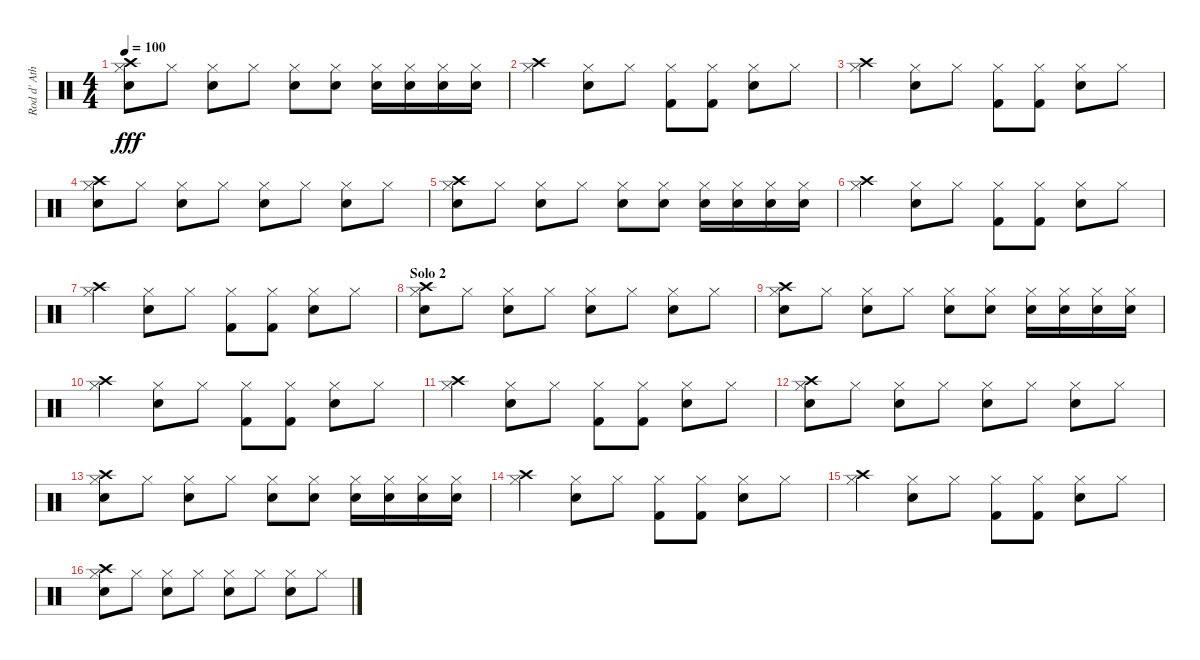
\track ("Rod d' Ath" "Rod d' Ath") {instrument percussion}
\staff {score}
\articulation defaults
\ts (4 4)
\tempo 100
\clef neutral
\ks c
("Snare (hit) 2" "Hi-Hat (closed)" "Crash high (hit)").8{dy fff} "Hi-Hat (closed)".8 ("Snare (hit) 2" "Hi-Hat (closed)").8 "Hi-Hat (closed)".8 ("Snare (hit) 2" "Hi-Hat (closed)").8 ("Snare (hit) 2" "Hi-Hat (closed)").8 ("Snare (hit) 2" "Hi-Hat (closed)").16 ("Snare (hit) 2" "Hi-Hat (closed)").16 ("Snare (hit) 2" "Hi-Hat (closed)").16 ("Snare (hit) 2" "Hi-Hat (closed)").16 |
("Crash high (hit)" "Hi-Hat (closed)").4 ("Snare (hit) 2" "Hi-Hat (closed)").8 "Hi-Hat (closed)".8 ("Kick (hit) 2" "Hi-Hat (closed)").8 ("Kick (hit) 2" "Hi-Hat (closed)").8 ("Snare (hit) 2" "Hi-Hat (closed)").8 "Hi-Hat (closed)".8 |
("Crash high (hit)" "Hi-Hat (closed)").4 ("Snare (hit) 2" "Hi-Hat (closed)").8 "Hi-Hat (closed)".8 ("Kick (hit) 2" "Hi-Hat (closed)").8 ("Kick (hit) 2" "Hi-Hat (closed)").8 ("Snare (hit) 2" "Hi-Hat (closed)").8 "Hi-Hat (closed)".8 |
("Snare (hit) 2" "Hi-Hat (closed)" "Crash high (hit)").8{volume 16} "Hi-Hat (closed)".8 ("Snare (hit) 2" "Hi-Hat (closed)").8 "Hi-Hat (closed)".8 ("Snare (hit) 2" "Hi-Hat (closed)").8 "Hi-Hat (closed)".8 ("Snare (hit) 2" "Hi-Hat (closed)").8 "Hi-Hat (closed)".8 |
("Snare (hit) 2" "Hi-Hat (closed)" "Crash high (hit)").8 "Hi-Hat (closed)".8 ("Snare (hit) 2" "Hi-Hat (closed)").8 "Hi-Hat (closed)".8 ("Snare (hit) 2" "Hi-Hat (closed)").8 ("Snare (hit) 2" "Hi-Hat (closed)").8 ("Snare (hit) 2" "Hi-Hat (closed)").16 ("Snare (hit) 2" "Hi-Hat (closed)").16 ("Snare (hit) 2" "Hi-Hat (closed)").16 ("Snare (hit) 2" "Hi-Hat (closed)").16 |
("Crash high (hit)" "Hi-Hat (closed)").4 ("Snare (hit) 2" "Hi-Hat (closed)").8 "Hi-Hat (closed)".8 ("Kick (hit) 2" "Hi-Hat (closed)").8 ("Kick (hit) 2" "Hi-Hat (closed)").8 ("Snare (hit) 2" "Hi-Hat (closed)").8 "Hi-Hat (closed)".8 |
("Crash high (hit)" "Hi-Hat (closed)").4 ("Snare (hit) 2" "Hi-Hat (closed)").8 "Hi-Hat (closed)".8 ("Kick (hit) 2" "Hi-Hat (closed)").8 ("Kick (hit) 2" "Hi-Hat (closed)").8 ("Snare (hit) 2" "Hi-Hat (closed)").8 "Hi-Hat (closed)".8 |
\section ("" "Solo 2")
("Snare (hit) 2" "Hi-Hat (closed)" "Crash high (hit)").8{volume 16} "Hi-Hat (closed)".8 ("Snare (hit) 2" "Hi-Hat (closed)").8 "Hi-Hat (closed)".8 ("Snare (hit) 2" "Hi-Hat (closed)").8 "Hi-Hat (closed)".8 ("Snare (hit) 2" "Hi-Hat (closed)").8 "Hi-Hat (closed)".8 |
("Snare (hit) 2" "Hi-Hat (closed)" "Crash high (hit)").8 "Hi-Hat (closed)".8 ("Snare (hit) 2" "Hi-Hat (closed)").8 "Hi-Hat (closed)".8 ("Snare (hit) 2" "Hi-Hat (closed)").8 ("Snare (hit) 2" "Hi-Hat (closed)").8 ("Snare (hit) 2" "Hi-Hat (closed)").16 ("Snare (hit) 2" "Hi-Hat (closed)").16 ("Snare (hit) 2" "Hi-Hat (closed)").16 ("Snare (hit) 2" "Hi-Hat (closed)").16 |
("Crash high (hit)" "Hi-Hat (closed)").4 ("Snare (hit) 2" "Hi-Hat (closed)").8 "Hi-Hat (closed)".8 ("Kick (hit) 2" "Hi-Hat (closed)").8 ("Kick (hit) 2" "Hi-Hat (closed)").8 ("Snare (hit) 2" "Hi-Hat (closed)").8 "Hi-Hat (closed)".8 |
("Crash high (hit)" "Hi-Hat (closed)").4 ("Snare (hit) 2" "Hi-Hat (closed)").8 "Hi-Hat (closed)".8 ("Kick (hit) 2" "Hi-Hat (closed)").8 ("Kick (hit) 2" "Hi-Hat (closed)").8 ("Snare (hit) 2" "Hi-Hat (closed)").8 "Hi-Hat (closed)".8 |
("Snare (hit) 2" "Hi-Hat (closed)" "Crash high (hit)").8{volume 16} "Hi-Hat (closed)".8 ("Snare (hit) 2" "Hi-Hat (closed)").8 "Hi-Hat (closed)".8 ("Snare (hit) 2" "Hi-Hat (closed)").8 "Hi-Hat (closed)".8 ("Snare (hit) 2" "Hi-Hat (closed)").8 "Hi-Hat (closed)".8 |
("Snare (hit) 2" "Hi-Hat (closed)" "Crash high (hit)").8 "Hi-Hat (closed)".8 ("Snare (hit) 2" "Hi-Hat (closed)").8 "Hi-Hat (closed)".8 ("Snare (hit) 2" "Hi-Hat (closed)").8 ("Snare (hit) 2" "Hi-Hat (closed)").8 ("Snare (hit) 2" "Hi-Hat (closed)").16 ("Snare (hit) 2" "Hi-Hat (closed)").16 ("Snare (hit) 2" "Hi-Hat (closed)").16 ("Snare (hit) 2" "Hi-Hat (closed)").16 |
("Crash high (hit)" "Hi-Hat (closed)").4 ("Snare (hit) 2" "Hi-Hat (closed)").8 "Hi-Hat (closed)".8 ("Kick (hit) 2" "Hi-Hat (closed)").8 ("Kick (hit) 2" "Hi-Hat (closed)").8 ("Snare (hit) 2" "Hi-Hat (closed)").8 "Hi-Hat (closed)".8 |
("Crash high (hit)" "Hi-Hat (closed)").4 ("Snare (hit) 2" "Hi-Hat (closed)").8 "Hi-Hat (closed)".8 ("Kick (hit) 2" "Hi-Hat (closed)").8 ("Kick (hit) 2" "Hi-Hat (closed)").8 ("Snare (hit) 2" "Hi-Hat (closed)").8 "Hi-Hat (closed)".8 |
("Snare (hit) 2" "Hi-Hat (closed)" "Crash high (hit)").8{volume 16} "Hi-Hat (closed)".8 ("Snare (hit) 2" "Hi-Hat (closed)").8 "Hi-Hat (closed)".8 ("Snare (hit) 2" "Hi-Hat (closed)").8 "Hi-Hat (closed)".8 ("Snare (hit) 2" "Hi-Hat (closed)").8 "Hi-Hat (closed)".8
